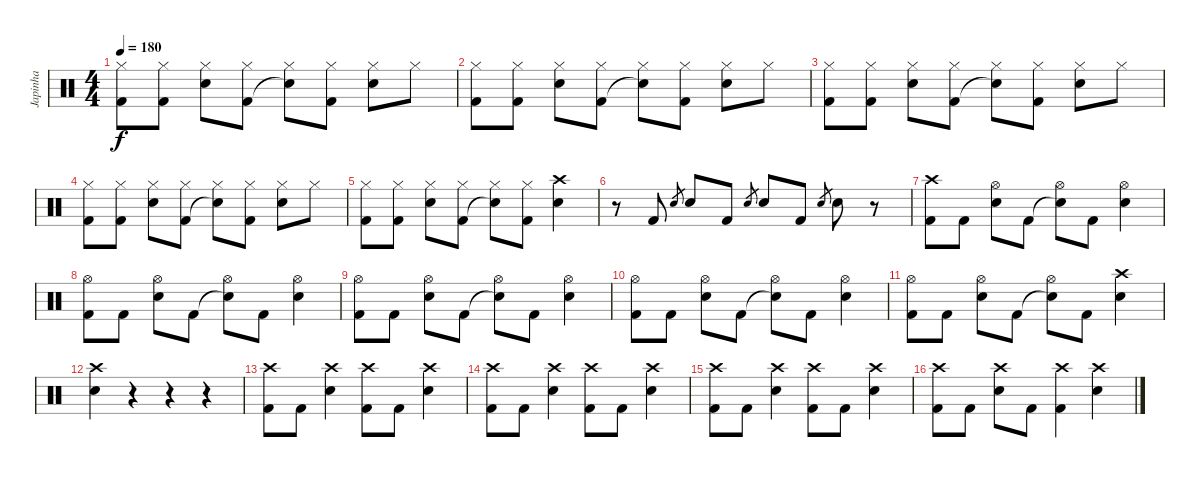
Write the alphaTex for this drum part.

\track ("Japinha" "Japinha") {instrument percussion}
\staff {score}
\articulation defaults
\ts (4 4)
\tempo 180
\clef neutral
\ks c
("Kick (hit) 2" "Hi-Hat (closed)").8{dy f} ("Kick (hit) 2" "Hi-Hat (closed)").8 ("Snare (hit) 2" "Hi-Hat (closed)").8 ("Kick (hit) 2" "Hi-Hat (closed)").8 ("Snare (hit)"{t} "Hi-Hat (closed)").8 ("Kick (hit) 2" "Hi-Hat (closed)").8 ("Snare (hit) 2" "Hi-Hat (closed)").8 "Hi-Hat (closed)".8 |
("Kick (hit) 2" "Hi-Hat (closed)").8 ("Kick (hit) 2" "Hi-Hat (closed)").8 ("Snare (hit) 2" "Hi-Hat (closed)").8 ("Kick (hit) 2" "Hi-Hat (closed)").8 ("Snare (hit)"{t} "Hi-Hat (closed)").8 ("Kick (hit) 2" "Hi-Hat (closed)").8 ("Snare (hit) 2" "Hi-Hat (closed)").8 "Hi-Hat (closed)".8 |
("Kick (hit) 2" "Hi-Hat (closed)").8 ("Kick (hit) 2" "Hi-Hat (closed)").8 ("Snare (hit) 2" "Hi-Hat (closed)").8 ("Kick (hit) 2" "Hi-Hat (closed)").8 ("Snare (hit)"{t} "Hi-Hat (closed)").8 ("Kick (hit) 2" "Hi-Hat (closed)").8 ("Snare (hit) 2" "Hi-Hat (closed)").8 "Hi-Hat (closed)".8 |
("Kick (hit) 2" "Hi-Hat (closed)").8 ("Kick (hit) 2" "Hi-Hat (closed)").8 ("Snare (hit) 2" "Hi-Hat (closed)").8 ("Kick (hit) 2" "Hi-Hat (closed)").8 ("Snare (hit)"{t} "Hi-Hat (closed)").8 ("Kick (hit) 2" "Hi-Hat (closed)").8 ("Snare (hit) 2" "Hi-Hat (closed)").8 "Hi-Hat (closed)".8 |
("Kick (hit) 2" "Hi-Hat (closed)").8 ("Kick (hit) 2" "Hi-Hat (closed)").8 ("Snare (hit) 2" "Hi-Hat (closed)").8 ("Kick (hit) 2" "Hi-Hat (closed)").8 ("Snare (hit)"{t} "Hi-Hat (closed)").8 ("Kick (hit) 2" "Hi-Hat (closed)").8 ("Snare (hit) 2" "Crash high (hit)").4 |
r.8 "Kick (hit) 2".8 "Snare (hit) 2".8{gr} "Snare (hit) 2".8 "Kick (hit) 2".8 "Snare (hit) 2".8{gr} "Snare (hit) 2".8 "Kick (hit) 2".8 "Snare (hit) 2".8{gr} "Snare (hit) 2".8 r.8 |
("Kick (hit) 2" "Crash high (hit)").8 "Kick (hit) 2".8 ("Snare (hit) 2" "Hi-Hat (open)").8 "Kick (hit) 2".8 ("Snare (hit)"{t} "Hi-Hat (open)").8 "Kick (hit) 2".8 ("Snare (hit) 2" "Hi-Hat (open)").4 |
("Kick (hit) 2" "Hi-Hat (open)").8 "Kick (hit) 2".8 ("Snare (hit) 2" "Hi-Hat (open)").8 "Kick (hit) 2".8 ("Snare (hit)"{t} "Hi-Hat (open)").8 "Kick (hit) 2".8 ("Snare (hit) 2" "Hi-Hat (open)").4 |
("Kick (hit) 2" "Hi-Hat (open)").8 "Kick (hit) 2".8 ("Snare (hit) 2" "Hi-Hat (open)").8 "Kick (hit) 2".8 ("Snare (hit)"{t} "Hi-Hat (open)").8 "Kick (hit) 2".8 ("Snare (hit) 2" "Hi-Hat (open)").4 |
("Kick (hit) 2" "Hi-Hat (open)").8 "Kick (hit) 2".8 ("Snare (hit) 2" "Hi-Hat (open)").8 "Kick (hit) 2".8 ("Snare (hit)"{t} "Hi-Hat (open)").8 "Kick (hit) 2".8 ("Snare (hit) 2" "Hi-Hat (open)").4 |
("Kick (hit) 2" "Hi-Hat (open)").8 "Kick (hit) 2".8 ("Snare (hit) 2" "Hi-Hat (open)").8 "Kick (hit) 2".8 ("Snare (hit)"{t} "Hi-Hat (open)").8 "Kick (hit) 2".8 ("Snare (hit) 2" "Crash high (hit)").4 |
("Snare (hit) 2" "Crash high (hit)").4 r.4 r.4 r.4 |
("Kick (hit) 2" "Crash high (hit)").8 "Kick (hit) 2".8 ("Snare (hit) 2" "Crash high (hit)").4 ("Kick (hit) 2" "Crash high (hit)").8 "Kick (hit) 2".8 ("Snare (hit) 2" "Crash high (hit)").4 |
("Kick (hit) 2" "Crash high (hit)").8 "Kick (hit) 2".8 ("Snare (hit) 2" "Crash high (hit)").4 ("Kick (hit) 2" "Crash high (hit)").8 "Kick (hit) 2".8 ("Snare (hit) 2" "Crash high (hit)").4 |
("Kick (hit) 2" "Crash high (hit)").8 "Kick (hit) 2".8 ("Snare (hit) 2" "Crash high (hit)").4 ("Kick (hit) 2" "Crash high (hit)").8 "Kick (hit) 2".8 ("Snare (hit) 2" "Crash high (hit)").4 |
("Kick (hit) 2" "Crash high (hit)").8 "Kick (hit) 2".8 ("Snare (hit) 2" "Crash high (hit)").8 "Kick (hit) 2".8 ("Kick (hit) 2" "Crash high (hit)").4 ("Snare (hit) 2" "Crash high (hit)").4
